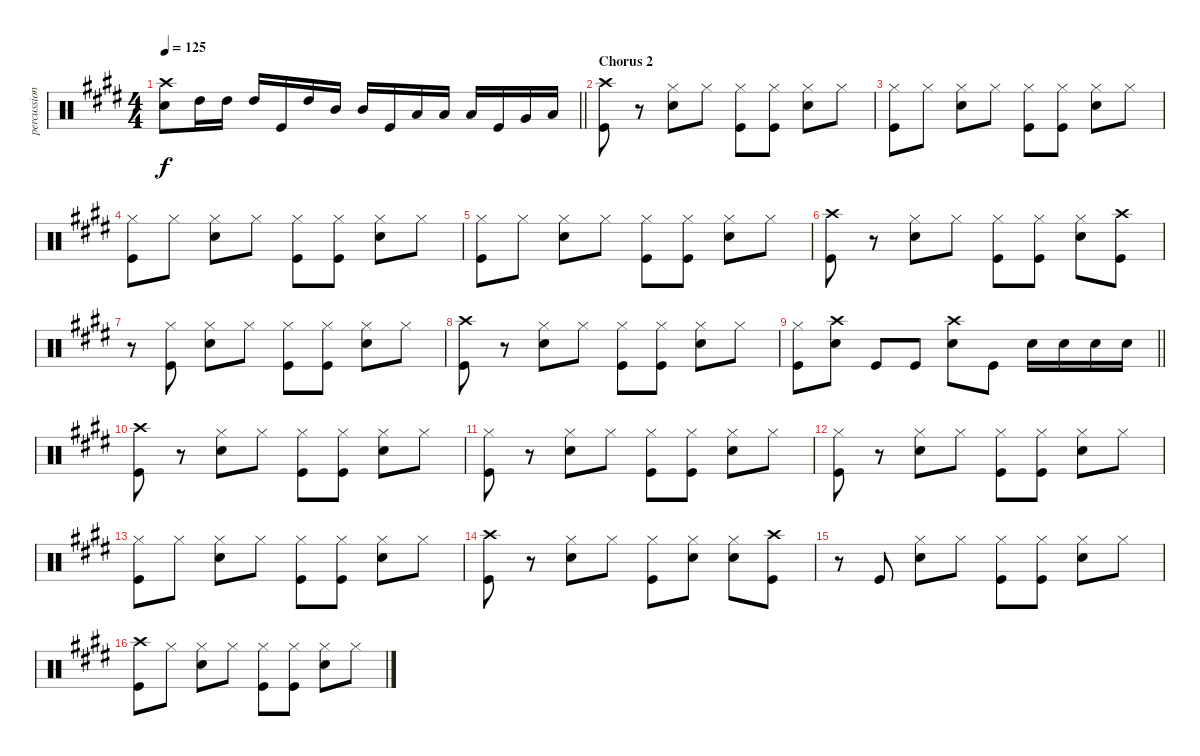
\track ("percussion" "percussion") {instrument percussion}
\staff {score}
\articulation defaults
\ts (4 4)
\tempo 125
\clef neutral
\barLineRight lightlight
\ks e
("Crash high (hit)" "Electric Snare (hit)").8{dy f} "High Tom (hit)".16 "High Tom (hit)".16 "High Tom (hit)".16 "Kick (hit)".16 "High Tom (hit)".16 "Mid Tom (hit)".16 "Mid Tom (hit)".16 "Kick (hit)".16 "Low Tom (hit)".16 "Low Tom (hit)".16 "Low Tom (hit)".16 "Kick (hit)".16 "Very Low Tom (hit)".16 "Low Tom (hit)".16 |
\section ("" "Chorus 2")
("Crash high (hit)" "Kick (hit)").8 r.8 ("Electric Snare (hit)" "Hi-Hat (closed)").8 "Hi-Hat (closed)".8 ("Hi-Hat (closed)" "Kick (hit)").8 ("Hi-Hat (closed)" "Kick (hit)").8 ("Electric Snare (hit)" "Hi-Hat (closed)").8 "Hi-Hat (closed)".8 |
("Hi-Hat (closed)" "Kick (hit)").8 "Hi-Hat (closed)".8 ("Electric Snare (hit)" "Hi-Hat (closed)").8 "Hi-Hat (closed)".8 ("Hi-Hat (closed)" "Kick (hit)").8 ("Hi-Hat (closed)" "Kick (hit)").8 ("Electric Snare (hit)" "Hi-Hat (closed)").8 "Hi-Hat (closed)".8 |
("Hi-Hat (closed)" "Kick (hit)").8 "Hi-Hat (closed)".8 ("Electric Snare (hit)" "Hi-Hat (closed)").8 "Hi-Hat (closed)".8 ("Hi-Hat (closed)" "Kick (hit)").8 ("Hi-Hat (closed)" "Kick (hit)").8 ("Electric Snare (hit)" "Hi-Hat (closed)").8 "Hi-Hat (closed)".8 |
("Hi-Hat (closed)" "Kick (hit)").8 "Hi-Hat (closed)".8 ("Electric Snare (hit)" "Hi-Hat (closed)").8 "Hi-Hat (closed)".8 ("Hi-Hat (closed)" "Kick (hit)").8 ("Hi-Hat (closed)" "Kick (hit)").8 ("Electric Snare (hit)" "Hi-Hat (closed)").8 "Hi-Hat (closed)".8 |
("Crash high (hit)" "Kick (hit)").8 r.8 ("Electric Snare (hit)" "Hi-Hat (closed)").8 "Hi-Hat (closed)".8 ("Hi-Hat (closed)" "Kick (hit)").8 ("Hi-Hat (closed)" "Kick (hit)").8 ("Electric Snare (hit)" "Hi-Hat (closed)").8 ("Crash high (hit)" "Kick (hit)").8 |
r.8 ("Hi-Hat (closed)" "Kick (hit)").8 ("Electric Snare (hit)" "Hi-Hat (closed)").8 "Hi-Hat (closed)".8 ("Hi-Hat (closed)" "Kick (hit)").8 ("Hi-Hat (closed)" "Kick (hit)").8 ("Electric Snare (hit)" "Hi-Hat (closed)").8 "Hi-Hat (closed)".8 |
("Crash high (hit)" "Kick (hit)").8 r.8 ("Electric Snare (hit)" "Hi-Hat (closed)").8 "Hi-Hat (closed)".8 ("Hi-Hat (closed)" "Kick (hit)").8 ("Hi-Hat (closed)" "Kick (hit)").8 ("Electric Snare (hit)" "Hi-Hat (closed)").8 "Hi-Hat (closed)".8 |
\barLineRight lightlight
("Hi-Hat (closed)" "Kick (hit)").8 ("Crash high (hit)" "Electric Snare (hit)").8 "Kick (hit)".8 "Kick (hit)".8 ("Crash high (hit)" "Electric Snare (hit)").8 "Kick (hit)".8 "Electric Snare (hit)".16 "Electric Snare (hit)".16 "Electric Snare (hit)".16 "Electric Snare (hit)".16 |
("Crash high (hit)" "Kick (hit)").8 r.8 ("Electric Snare (hit)" "Hi-Hat (closed)").8 "Hi-Hat (closed)".8 ("Hi-Hat (closed)" "Kick (hit)").8 ("Hi-Hat (closed)" "Kick (hit)").8 ("Electric Snare (hit)" "Hi-Hat (closed)").8 "Hi-Hat (closed)".8 |
("Hi-Hat (closed)" "Kick (hit)").8 r.8 ("Electric Snare (hit)" "Hi-Hat (closed)").8 "Hi-Hat (closed)".8 ("Hi-Hat (closed)" "Kick (hit)").8 ("Hi-Hat (closed)" "Kick (hit)").8 ("Electric Snare (hit)" "Hi-Hat (closed)").8 "Hi-Hat (closed)".8 |
("Hi-Hat (closed)" "Kick (hit)").8 r.8 ("Electric Snare (hit)" "Hi-Hat (closed)").8 "Hi-Hat (closed)".8 ("Hi-Hat (closed)" "Kick (hit)").8 ("Hi-Hat (closed)" "Kick (hit)").8 ("Electric Snare (hit)" "Hi-Hat (closed)").8 "Hi-Hat (closed)".8 |
("Hi-Hat (closed)" "Kick (hit)").8 "Hi-Hat (closed)".8 ("Electric Snare (hit)" "Hi-Hat (closed)").8 "Hi-Hat (closed)".8 ("Hi-Hat (closed)" "Kick (hit)").8 ("Hi-Hat (closed)" "Kick (hit)").8 ("Electric Snare (hit)" "Hi-Hat (closed)").8 "Hi-Hat (closed)".8 |
("Crash high (hit)" "Kick (hit)").8 r.8 ("Electric Snare (hit)" "Hi-Hat (closed)").8 "Hi-Hat (closed)".8 ("Hi-Hat (closed)" "Kick (hit)").8 ("Electric Snare (hit)" "Hi-Hat (closed)").8 ("Electric Snare (hit)" "Hi-Hat (closed)").8 ("Crash high (hit)" "Kick (hit)").8 |
r.8 "Kick (hit)".8 ("Electric Snare (hit)" "Hi-Hat (closed)").8 "Hi-Hat (closed)".8 ("Hi-Hat (closed)" "Kick (hit)").8 ("Hi-Hat (closed)" "Kick (hit)").8 ("Electric Snare (hit)" "Hi-Hat (closed)").8 "Hi-Hat (closed)".8 |
("Crash high (hit)" "Kick (hit)").8 "Hi-Hat (closed)".8 ("Electric Snare (hit)" "Hi-Hat (closed)").8 "Hi-Hat (closed)".8 ("Hi-Hat (closed)" "Kick (hit)").8 ("Hi-Hat (closed)" "Kick (hit)").8 ("Electric Snare (hit)" "Hi-Hat (closed)").8 "Hi-Hat (closed)".8
